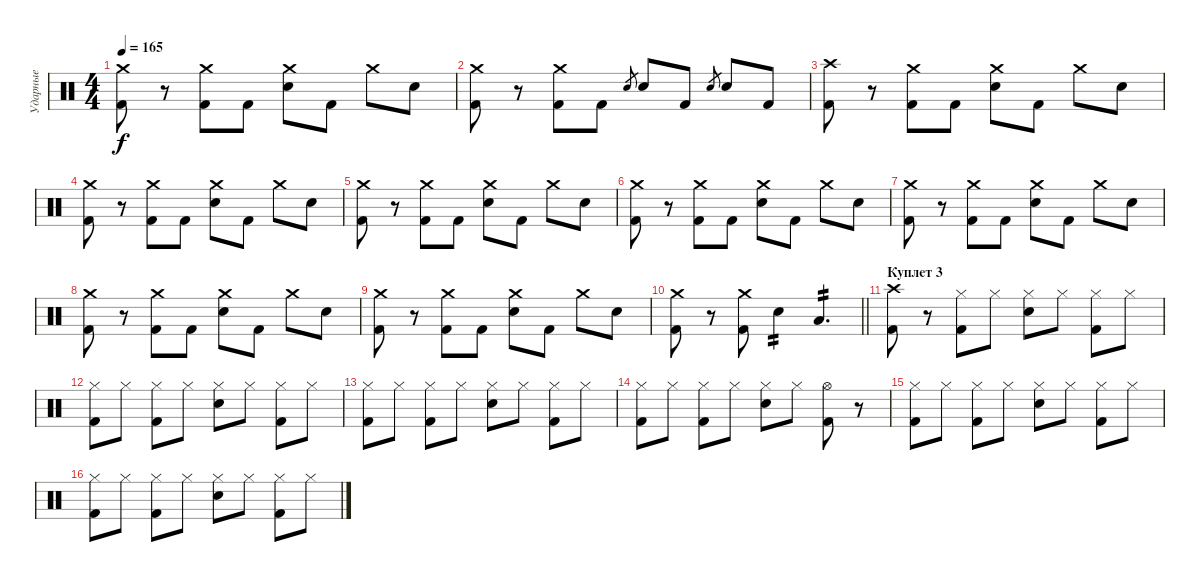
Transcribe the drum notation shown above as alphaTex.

\track ("Ударные" "Ударные") {instrument percussion}
\staff {score}
\articulation defaults
\ts (4 4)
\tempo 165
\clef neutral
\ks c
("Crash medium (hit)" "Kick (hit) 2").8{dy f} r.8 ("Crash medium (hit)" "Kick (hit) 2").8 "Kick (hit) 2".8 ("Crash medium (hit)" "Electric Snare (hit)").8 "Kick (hit) 2".8 "Crash medium (hit)".8 "Electric Snare (hit)".8 |
("Crash medium (hit)" "Kick (hit) 2").8 r.8 ("Crash medium (hit)" "Kick (hit) 2").8 "Kick (hit) 2".8 "Electric Snare (hit)".8{gr} "Electric Snare (hit)".8 "Kick (hit) 2".8 "Electric Snare (hit)".8{gr} "Electric Snare (hit)".8 "Kick (hit) 2".8 |
("Crash high (hit)" "Kick (hit) 2").8 r.8 ("Crash medium (hit)" "Kick (hit) 2").8 "Kick (hit) 2".8 ("Crash medium (hit)" "Electric Snare (hit)").8 "Kick (hit) 2".8 "Crash medium (hit)".8 "Electric Snare (hit)".8 |
("Crash medium (hit)" "Kick (hit) 2").8 r.8 ("Crash medium (hit)" "Kick (hit) 2").8 "Kick (hit) 2".8 ("Crash medium (hit)" "Electric Snare (hit)").8 "Kick (hit) 2".8 "Crash medium (hit)".8 "Electric Snare (hit)".8 |
("Crash medium (hit)" "Kick (hit) 2").8 r.8 ("Crash medium (hit)" "Kick (hit) 2").8 "Kick (hit) 2".8 ("Crash medium (hit)" "Electric Snare (hit)").8 "Kick (hit) 2".8 "Crash medium (hit)".8 "Electric Snare (hit)".8 |
("Crash medium (hit)" "Kick (hit) 2").8 r.8 ("Crash medium (hit)" "Kick (hit) 2").8 "Kick (hit) 2".8 ("Crash medium (hit)" "Electric Snare (hit)").8 "Kick (hit) 2".8 "Crash medium (hit)".8 "Electric Snare (hit)".8 |
("Crash medium (hit)" "Kick (hit) 2").8 r.8 ("Crash medium (hit)" "Kick (hit) 2").8 "Kick (hit) 2".8 ("Crash medium (hit)" "Electric Snare (hit)").8 "Kick (hit) 2".8 "Crash medium (hit)".8 "Electric Snare (hit)".8 |
("Crash medium (hit)" "Kick (hit) 2").8 r.8 ("Crash medium (hit)" "Kick (hit) 2").8 "Kick (hit) 2".8 ("Crash medium (hit)" "Electric Snare (hit)").8 "Kick (hit) 2".8 "Crash medium (hit)".8 "Electric Snare (hit)".8 |
("Crash medium (hit)" "Kick (hit) 2").8 r.8 ("Crash medium (hit)" "Kick (hit) 2").8 "Kick (hit) 2".8 ("Crash medium (hit)" "Electric Snare (hit)").8 "Kick (hit) 2".8 "Crash medium (hit)".8 "Electric Snare (hit)".8 |
\barLineRight lightlight
("Crash medium (hit)" "Kick (hit) 2").8 r.8 ("Crash medium (hit)" "Kick (hit) 2").8 "Electric Snare (hit)".4{tp 2} "Low Tom (hit)".4{d tp 2} |
\section ("" "Куплет 3")
("Crash high (hit)" "Kick (hit) 2").8 r.8 ("Hi-Hat (closed)" "Kick (hit) 2").8 "Hi-Hat (closed)".8 ("Hi-Hat (closed)" "Electric Snare (hit)").8 "Hi-Hat (closed)".8 ("Hi-Hat (closed)" "Kick (hit) 2").8 "Hi-Hat (closed)".8 |
("Hi-Hat (closed)" "Kick (hit) 2").8 "Hi-Hat (closed)".8 ("Hi-Hat (closed)" "Kick (hit) 2").8 "Hi-Hat (closed)".8 ("Hi-Hat (closed)" "Electric Snare (hit)").8 "Hi-Hat (closed)".8 ("Hi-Hat (closed)" "Kick (hit) 2").8 "Hi-Hat (closed)".8 |
("Hi-Hat (closed)" "Kick (hit) 2").8 "Hi-Hat (closed)".8 ("Hi-Hat (closed)" "Kick (hit) 2").8 "Hi-Hat (closed)".8 ("Hi-Hat (closed)" "Electric Snare (hit)").8 "Hi-Hat (closed)".8 ("Hi-Hat (closed)" "Kick (hit) 2").8 "Hi-Hat (closed)".8 |
("Hi-Hat (closed)" "Kick (hit) 2").8 "Hi-Hat (closed)".8 ("Hi-Hat (closed)" "Kick (hit) 2").8 "Hi-Hat (closed)".8 ("Hi-Hat (closed)" "Electric Snare (hit)").8 "Hi-Hat (closed)".8 ("Hi-Hat (open)" "Kick (hit) 2").8 r.8 |
("Hi-Hat (closed)" "Kick (hit) 2").8 "Hi-Hat (closed)".8 ("Hi-Hat (closed)" "Kick (hit) 2").8 "Hi-Hat (closed)".8 ("Hi-Hat (closed)" "Electric Snare (hit)").8 "Hi-Hat (closed)".8 ("Hi-Hat (closed)" "Kick (hit) 2").8 "Hi-Hat (closed)".8 |
("Hi-Hat (closed)" "Kick (hit) 2").8 "Hi-Hat (closed)".8 ("Hi-Hat (closed)" "Kick (hit) 2").8 "Hi-Hat (closed)".8 ("Hi-Hat (closed)" "Electric Snare (hit)").8 "Hi-Hat (closed)".8 ("Hi-Hat (closed)" "Kick (hit) 2").8 "Hi-Hat (closed)".8
